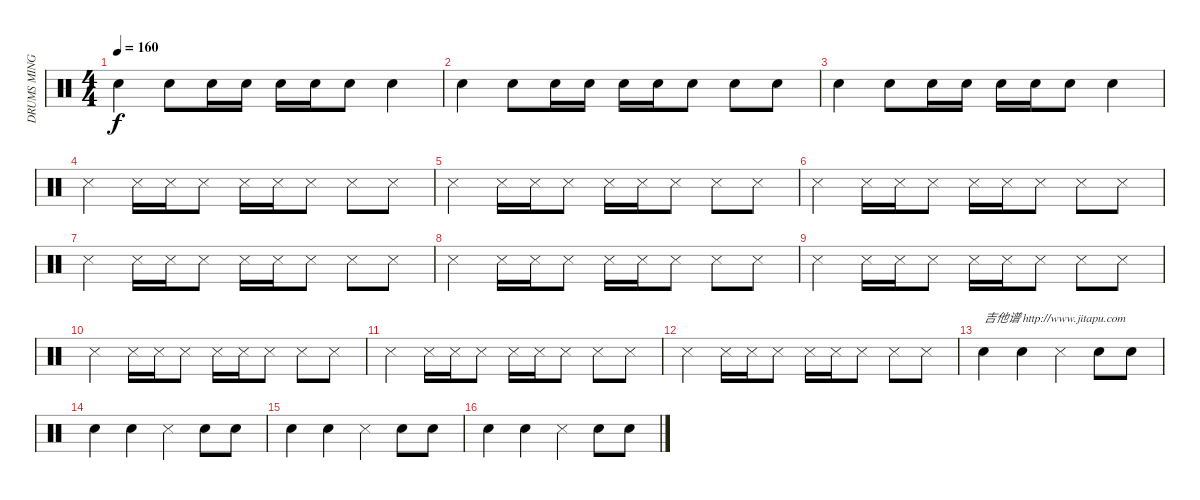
\track ("DRUMS MING" "DRUMS MING") {instrument percussion}
\staff {score}
\articulation defaults
\ts (4 4)
\tempo 160
\clef neutral
\ks c "Snare (hit) 2".4{dy f} "Snare (hit) 2".8 "Snare (hit) 2".16 "Snare (hit) 2".16 "Snare (hit) 2".16 "Snare (hit) 2".16 "Snare (hit) 2".8 "Snare (hit) 2".4
|
"Snare (hit) 2".4 "Snare (hit) 2".8 "Snare (hit) 2".16 "Snare (hit) 2".16 "Snare (hit) 2".16 "Snare (hit) 2".16 "Snare (hit) 2".8 "Snare (hit) 2".8 "Snare (hit) 2".8 |
"Snare (hit) 2".4 "Snare (hit) 2".8 "Snare (hit) 2".16 "Snare (hit) 2".16 "Snare (hit) 2".16 "Snare (hit) 2".16 "Snare (hit) 2".8 "Snare (hit) 2".4 |
"Snare (side stick) 3".4 "Snare (side stick) 3".16 "Snare (side stick) 3".16 "Snare (side stick) 3".8 "Snare (side stick) 3".16 "Snare (side stick) 3".16 "Snare (side stick) 3".8 "Snare (side stick) 3".8 "Snare (side stick) 3".8 |
"Snare (side stick) 3".4 "Snare (side stick) 3".16 "Snare (side stick) 3".16 "Snare (side stick) 3".8 "Snare (side stick) 3".16 "Snare (side stick) 3".16 "Snare (side stick) 3".8 "Snare (side stick) 3".8 "Snare (side stick) 3".8 |
"Snare (side stick) 3".4 "Snare (side stick) 3".16 "Snare (side stick) 3".16 "Snare (side stick) 3".8 "Snare (side stick) 3".16 "Snare (side stick) 3".16 "Snare (side stick) 3".8 "Snare (side stick) 3".8 "Snare (side stick) 3".8 |
"Snare (side stick) 3".4 "Snare (side stick) 3".16 "Snare (side stick) 3".16 "Snare (side stick) 3".8 "Snare (side stick) 3".16 "Snare (side stick) 3".16 "Snare (side stick) 3".8 "Snare (side stick) 3".8 "Snare (side stick) 3".8 |
"Snare (side stick) 3".4 "Snare (side stick) 3".16 "Snare (side stick) 3".16 "Snare (side stick) 3".8 "Snare (side stick) 3".16 "Snare (side stick) 3".16 "Snare (side stick) 3".8 "Snare (side stick) 3".8 "Snare (side stick) 3".8 |
"Snare (side stick) 3".4 "Snare (side stick) 3".16 "Snare (side stick) 3".16 "Snare (side stick) 3".8 "Snare (side stick) 3".16 "Snare (side stick) 3".16 "Snare (side stick) 3".8 "Snare (side stick) 3".8 "Snare (side stick) 3".8 |
"Snare (side stick) 3".4 "Snare (side stick) 3".16 "Snare (side stick) 3".16 "Snare (side stick) 3".8 "Snare (side stick) 3".16 "Snare (side stick) 3".16 "Snare (side stick) 3".8 "Snare (side stick) 3".8 "Snare (side stick) 3".8 |
"Snare (side stick) 3".4 "Snare (side stick) 3".16 "Snare (side stick) 3".16 "Snare (side stick) 3".8 "Snare (side stick) 3".16 "Snare (side stick) 3".16 "Snare (side stick) 3".8 "Snare (side stick) 3".8 "Snare (side stick) 3".8 |
"Snare (side stick) 3".4 "Snare (side stick) 3".16 "Snare (side stick) 3".16 "Snare (side stick) 3".8 "Snare (side stick) 3".16 "Snare (side stick) 3".16 "Snare (side stick) 3".8 "Snare (side stick) 3".8 "Snare (side stick) 3".8 |
"Snare (hit) 2".4{txt "吉他谱 http://www.jitapu.com"} "Snare (hit) 2".4 "Snare (side stick) 3".4 "Snare (hit) 2".8 "Snare (hit) 2".8 |
"Snare (hit) 2".4 "Snare (hit) 2".4 "Snare (side stick) 3".4 "Snare (hit) 2".8 "Snare (hit) 2".8 |
"Snare (hit) 2".4 "Snare (hit) 2".4 "Snare (side stick) 3".4 "Snare (hit) 2".8 "Snare (hit) 2".8 |
"Snare (hit) 2".4 "Snare (hit) 2".4 "Snare (side stick) 3".4 "Snare (hit) 2".8 "Snare (hit) 2".8
